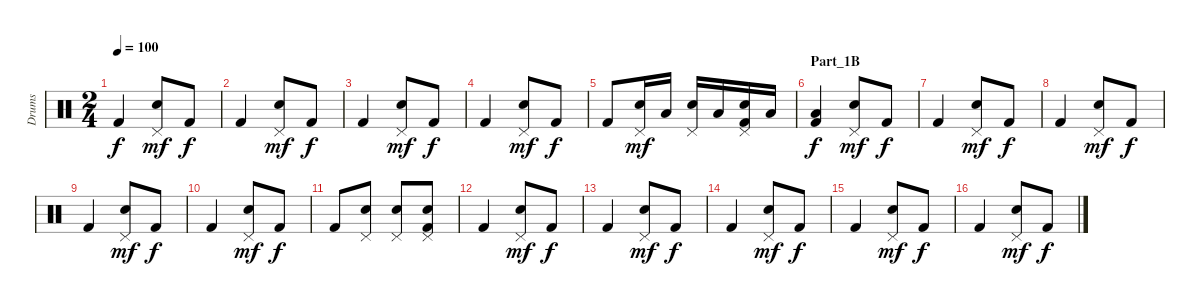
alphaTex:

\track ("Drums" "Drums") {instrument percussion}
\staff {score}
\articulation defaults
\ts (2 4)
\tempo 100
\clef neutral
\ks c "Kick (hit) 2".4{dy f}
("Pedal Hi-Hat (hit)" "Electric Snare (hit)").8{dy mf} "Kick (hit) 2".8{dy f} |
"Kick (hit) 2".4 ("Pedal Hi-Hat (hit)" "Electric Snare (hit)").8{dy mf} "Kick (hit) 2".8{dy f} |
"Kick (hit) 2".4 ("Pedal Hi-Hat (hit)" "Electric Snare (hit)").8{dy mf} "Kick (hit) 2".8{dy f} |
"Kick (hit) 2".4 ("Pedal Hi-Hat (hit)" "Electric Snare (hit)").8{dy mf} "Kick (hit) 2".8{dy f} |
"Kick (hit) 2".8 ("Pedal Hi-Hat (hit)" "Electric Snare (hit)").16{dy mf} "Low Floor Tom (hit)".16 ("Pedal Hi-Hat (hit)" "Electric Snare (hit)").16 "Low Floor Tom (hit)".16 ("Pedal Hi-Hat (hit)" "Electric Snare (hit)" "Kick (hit) 2").16 "Low Floor Tom (hit)".16 |
\section ("" "Part_1B")
("Low Floor Tom (hit)" "Kick (hit) 2").4{dy f} ("Pedal Hi-Hat (hit)" "Electric Snare (hit)").8{dy mf} "Kick (hit) 2".8{dy f} |
"Kick (hit) 2".4 ("Pedal Hi-Hat (hit)" "Electric Snare (hit)").8{dy mf} "Kick (hit) 2".8{dy f} |
"Kick (hit) 2".4 ("Pedal Hi-Hat (hit)" "Electric Snare (hit)").8{dy mf} "Kick (hit) 2".8{dy f} |
"Kick (hit) 2".4 ("Pedal Hi-Hat (hit)" "Electric Snare (hit)").8{dy mf} "Kick (hit) 2".8{dy f} |
"Kick (hit) 2".4 ("Pedal Hi-Hat (hit)" "Electric Snare (hit)").8{dy mf} "Kick (hit) 2".8{dy f} |
"Kick (hit) 2".8 ("Pedal Hi-Hat (hit)" "Electric Snare (hit)").8 ("Pedal Hi-Hat (hit)" "Electric Snare (hit)").8 ("Pedal Hi-Hat (hit)" "Electric Snare (hit)" "Kick (hit) 2").8 |
"Kick (hit) 2".4 ("Pedal Hi-Hat (hit)" "Electric Snare (hit)").8{dy mf} "Kick (hit) 2".8{dy f} |
"Kick (hit) 2".4 ("Pedal Hi-Hat (hit)" "Electric Snare (hit)").8{dy mf} "Kick (hit) 2".8{dy f} |
"Kick (hit) 2".4 ("Pedal Hi-Hat (hit)" "Electric Snare (hit)").8{dy mf} "Kick (hit) 2".8{dy f} |
"Kick (hit) 2".4 ("Pedal Hi-Hat (hit)" "Electric Snare (hit)").8{dy mf} "Kick (hit) 2".8{dy f} |
"Kick (hit) 2".4 ("Pedal Hi-Hat (hit)" "Electric Snare (hit)").8{dy mf} "Kick (hit) 2".8{dy f}
